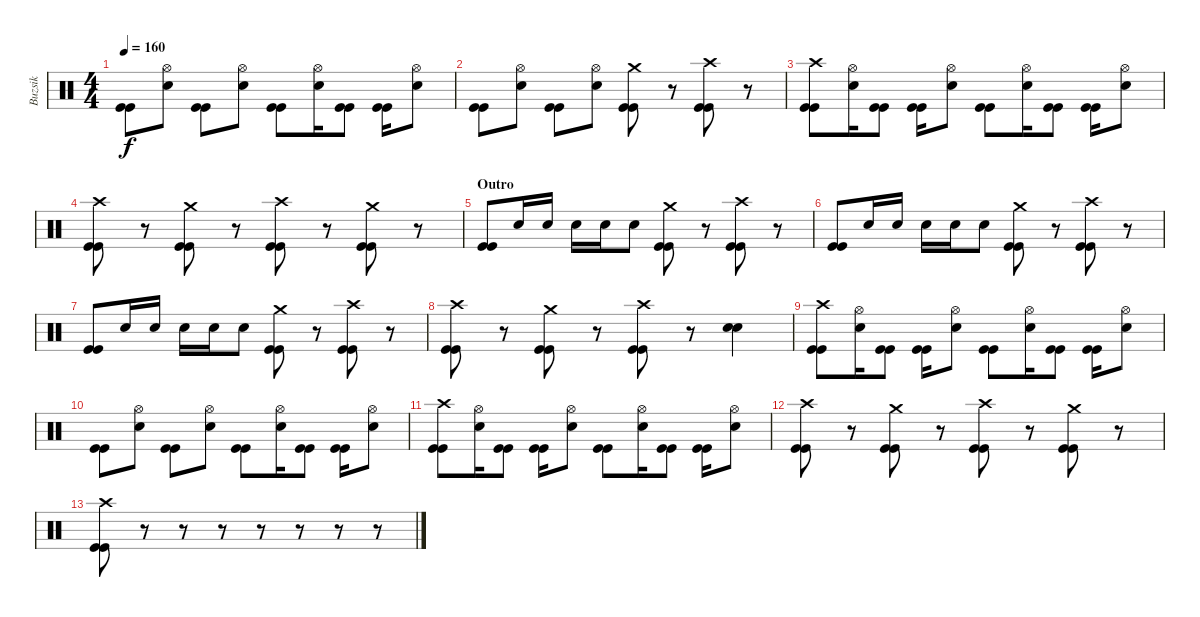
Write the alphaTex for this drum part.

\track ("Buzsik" "Buzsik") {instrument percussion}
\staff {score}
\articulation defaults
\ts (4 4)
\tempo 160
\clef neutral
\ks c
("Kick (hit)" "Kick (hit)").8{dy f} ("Hi-Hat (open)" "Electric Snare (hit)").8 ("Kick (hit)" "Kick (hit)").8 ("Hi-Hat (open)" "Electric Snare (hit)").8 ("Kick (hit)" "Kick (hit)").8 ("Hi-Hat (open)" "Electric Snare (hit)").16 ("Kick (hit)" "Kick (hit)").8 ("Kick (hit)" "Kick (hit)").16 ("Hi-Hat (open)" "Electric Snare (hit)").8 |
("Kick (hit)" "Kick (hit)").8 ("Hi-Hat (open)" "Electric Snare (hit)").8 ("Kick (hit)" "Kick (hit)").8 ("Hi-Hat (open)" "Electric Snare (hit)").8 ("Crash medium (hit)" "Kick (hit)" "Kick (hit)").8 r.8 ("Crash high (hit)" "Kick (hit)" "Kick (hit)").8 r.8 |
("Crash high (hit)" "Kick (hit)" "Kick (hit)").8 ("Hi-Hat (open)" "Electric Snare (hit)").16 ("Kick (hit)" "Kick (hit)").8 ("Kick (hit)" "Kick (hit)").16 ("Hi-Hat (open)" "Electric Snare (hit)").8 ("Kick (hit)" "Kick (hit)").8 ("Hi-Hat (open)" "Electric Snare (hit)").16 ("Kick (hit)" "Kick (hit)").8 ("Kick (hit)" "Kick (hit)").16 ("Hi-Hat (open)" "Electric Snare (hit)").8 |
("Crash high (hit)" "Kick (hit)" "Kick (hit)").8 r.8 ("Crash medium (hit)" "Kick (hit)" "Kick (hit)").8 r.8 ("Crash high (hit)" "Kick (hit)" "Kick (hit)").8 r.8 ("Crash medium (hit)" "Kick (hit)" "Kick (hit)").8 r.8 |
\section ("" "Outro")
("Kick (hit)" "Kick (hit)").8 "Electric Snare (hit)".16 "Electric Snare (hit)".16 "Electric Snare (hit)".16 "Electric Snare (hit)".16 "Electric Snare (hit)".8 ("Crash medium (hit)" "Kick (hit)" "Kick (hit)").8 r.8 ("Crash high (hit)" "Kick (hit)" "Kick (hit)").8 r.8 |
("Kick (hit)" "Kick (hit)").8 "Electric Snare (hit)".16 "Electric Snare (hit)".16 "Electric Snare (hit)".16 "Electric Snare (hit)".16 "Electric Snare (hit)".8 ("Crash medium (hit)" "Kick (hit)" "Kick (hit)").8 r.8 ("Crash high (hit)" "Kick (hit)" "Kick (hit)").8 r.8 |
("Kick (hit)" "Kick (hit)").8 "Electric Snare (hit)".16 "Electric Snare (hit)".16 "Electric Snare (hit)".16 "Electric Snare (hit)".16 "Electric Snare (hit)".8 ("Crash medium (hit)" "Kick (hit)" "Kick (hit)").8 r.8 ("Crash high (hit)" "Kick (hit)" "Kick (hit)").8 r.8 |
("Crash high (hit)" "Kick (hit)" "Kick (hit)").8 r.8 ("Crash medium (hit)" "Kick (hit)" "Kick (hit)").8 r.8 ("Crash high (hit)" "Kick (hit)" "Kick (hit)").8 r.8 ("Electric Snare (hit)" "Snare (hit) 2").4 |
("Crash high (hit)" "Kick (hit)" "Kick (hit)").8 ("Hi-Hat (open)" "Electric Snare (hit)").16 ("Kick (hit)" "Kick (hit)").8 ("Kick (hit)" "Kick (hit)").16 ("Hi-Hat (open)" "Electric Snare (hit)").8 ("Kick (hit)" "Kick (hit)").8 ("Hi-Hat (open)" "Electric Snare (hit)").16 ("Kick (hit)" "Kick (hit)").8 ("Kick (hit)" "Kick (hit)").16 ("Hi-Hat (open)" "Electric Snare (hit)").8 |
("Kick (hit)" "Kick (hit)").8 ("Hi-Hat (open)" "Electric Snare (hit)").8 ("Kick (hit)" "Kick (hit)").8 ("Hi-Hat (open)" "Electric Snare (hit)").8 ("Kick (hit)" "Kick (hit)").8 ("Hi-Hat (open)" "Electric Snare (hit)").16 ("Kick (hit)" "Kick (hit)").8 ("Kick (hit)" "Kick (hit)").16 ("Hi-Hat (open)" "Electric Snare (hit)").8 |
("Crash high (hit)" "Kick (hit)" "Kick (hit)").8 ("Hi-Hat (open)" "Electric Snare (hit)").16 ("Kick (hit)" "Kick (hit)").8 ("Kick (hit)" "Kick (hit)").16 ("Hi-Hat (open)" "Electric Snare (hit)").8 ("Kick (hit)" "Kick (hit)").8 ("Hi-Hat (open)" "Electric Snare (hit)").16 ("Kick (hit)" "Kick (hit)").8 ("Kick (hit)" "Kick (hit)").16 ("Hi-Hat (open)" "Electric Snare (hit)").8 |
("Crash high (hit)" "Kick (hit)" "Kick (hit)").8 r.8 ("Crash medium (hit)" "Kick (hit)" "Kick (hit)").8 r.8 ("Crash high (hit)" "Kick (hit)" "Kick (hit)").8 r.8 ("Crash medium (hit)" "Kick (hit)" "Kick (hit)").8 r.8 |
("Crash high (hit)" "Kick (hit)" "Kick (hit)").8 r.8 r.8 r.8 r.8 r.8 r.8 r.8
